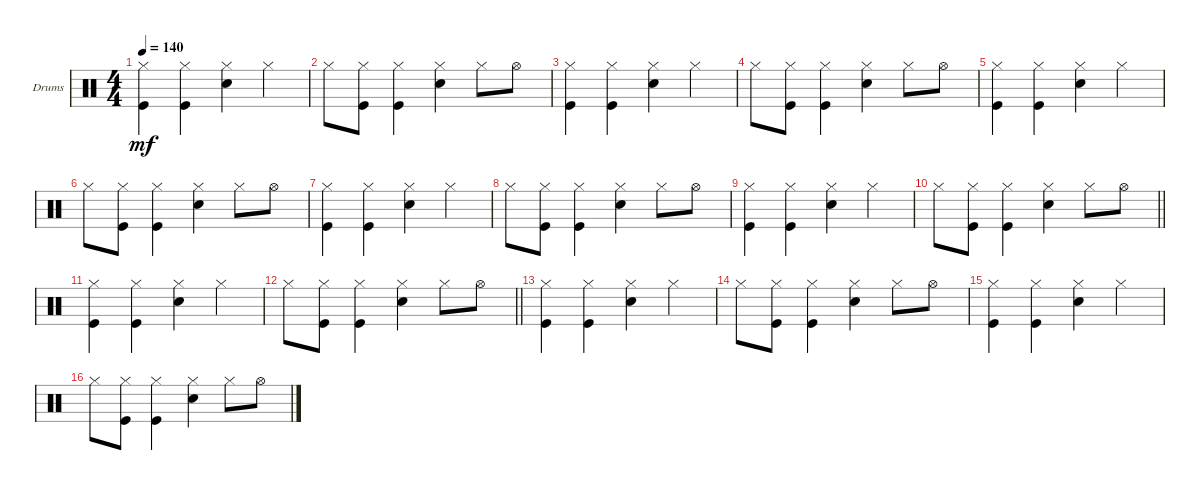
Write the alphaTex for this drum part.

\defaultSystemsLayout 4
\bracketExtendMode groupsimilarinstruments
\firstSystemTrackNameOrientation horizontal
\otherSystemsTrackNameOrientation horizontal
\track ("Drumkit" "Drums") {instrument percussion}
\staff {score}
\articulation defaults
\ts (4 4)
\tempo 140
\clef neutral
\ks c
("Hi-Hat (closed)" "Kick (hit)").4{dy mf} ("Hi-Hat (closed)" "Kick (hit)").4 ("Hi-Hat (closed)" "Snare (hit) 2").4 "Hi-Hat (closed)".4 |
"Hi-Hat (closed)".8 ("Hi-Hat (closed)" "Kick (hit)").8 ("Hi-Hat (closed)" "Kick (hit)").4 ("Snare (hit) 2" "Hi-Hat (closed)").4 "Hi-Hat (closed)".8 "Hi-Hat (open)".8 |
("Hi-Hat (closed)" "Kick (hit)").4 ("Hi-Hat (closed)" "Kick (hit)").4 ("Hi-Hat (closed)" "Snare (hit) 2").4 "Hi-Hat (closed)".4 |
"Hi-Hat (closed)".8 ("Hi-Hat (closed)" "Kick (hit)").8 ("Hi-Hat (closed)" "Kick (hit)").4 ("Snare (hit) 2" "Hi-Hat (closed)").4 "Hi-Hat (closed)".8 "Hi-Hat (open)".8 |
("Hi-Hat (closed)" "Kick (hit)").4 ("Hi-Hat (closed)" "Kick (hit)").4 ("Hi-Hat (closed)" "Snare (hit) 2").4 "Hi-Hat (closed)".4 |
"Hi-Hat (closed)".8 ("Hi-Hat (closed)" "Kick (hit)").8 ("Hi-Hat (closed)" "Kick (hit)").4 ("Snare (hit) 2" "Hi-Hat (closed)").4 "Hi-Hat (closed)".8 "Hi-Hat (open)".8 |
("Hi-Hat (closed)" "Kick (hit)").4 ("Hi-Hat (closed)" "Kick (hit)").4 ("Hi-Hat (closed)" "Snare (hit) 2").4 "Hi-Hat (closed)".4 |
"Hi-Hat (closed)".8 ("Hi-Hat (closed)" "Kick (hit)").8 ("Hi-Hat (closed)" "Kick (hit)").4 ("Snare (hit) 2" "Hi-Hat (closed)").4 "Hi-Hat (closed)".8 "Hi-Hat (open)".8 |
("Hi-Hat (closed)" "Kick (hit)").4 ("Hi-Hat (closed)" "Kick (hit)").4 ("Hi-Hat (closed)" "Snare (hit) 2").4 "Hi-Hat (closed)".4 |
\barLineRight lightlight "Hi-Hat (closed)".8
("Hi-Hat (closed)" "Kick (hit)").8 ("Hi-Hat (closed)" "Kick (hit)").4 ("Snare (hit) 2" "Hi-Hat (closed)").4 "Hi-Hat (closed)".8 "Hi-Hat (open)".8 |
("Hi-Hat (closed)" "Kick (hit)").4 ("Hi-Hat (closed)" "Kick (hit)").4 ("Hi-Hat (closed)" "Snare (hit) 2").4 "Hi-Hat (closed)".4 |
\barLineRight lightlight "Hi-Hat (closed)".8
("Hi-Hat (closed)" "Kick (hit)").8 ("Hi-Hat (closed)" "Kick (hit)").4 ("Snare (hit) 2" "Hi-Hat (closed)").4 "Hi-Hat (closed)".8 "Hi-Hat (open)".8 |
("Hi-Hat (closed)" "Kick (hit)").4 ("Hi-Hat (closed)" "Kick (hit)").4 ("Hi-Hat (closed)" "Snare (hit) 2").4 "Hi-Hat (closed)".4 |
"Hi-Hat (closed)".8 ("Hi-Hat (closed)" "Kick (hit)").8 ("Hi-Hat (closed)" "Kick (hit)").4 ("Snare (hit) 2" "Hi-Hat (closed)").4 "Hi-Hat (closed)".8 "Hi-Hat (open)".8 |
("Hi-Hat (closed)" "Kick (hit)").4 ("Hi-Hat (closed)" "Kick (hit)").4 ("Hi-Hat (closed)" "Snare (hit) 2").4 "Hi-Hat (closed)".4 |
"Hi-Hat (closed)".8 ("Hi-Hat (closed)" "Kick (hit)").8 ("Hi-Hat (closed)" "Kick (hit)").4 ("Snare (hit) 2" "Hi-Hat (closed)").4 "Hi-Hat (closed)".8 "Hi-Hat (open)".8
